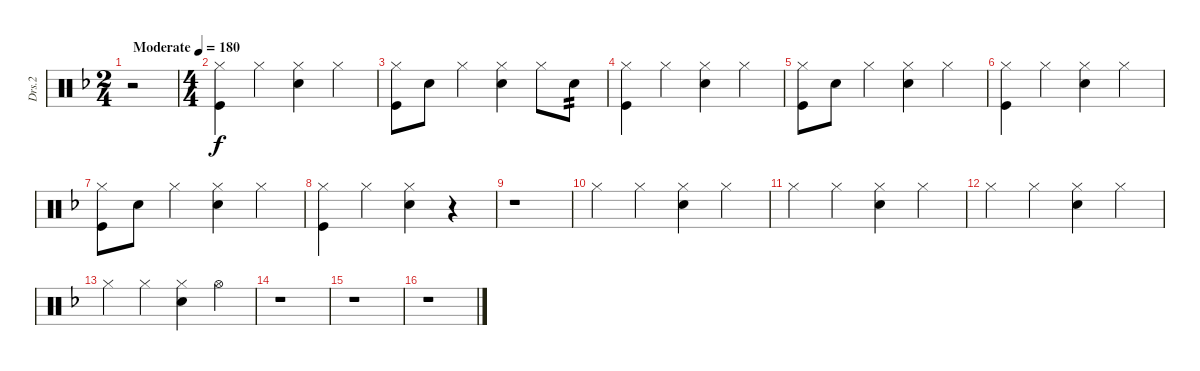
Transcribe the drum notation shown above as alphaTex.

\track ("Drs.2" "Drs.2") {instrument percussion}
\staff {score}
\articulation defaults
\ts (2 4)
\tempo (180 "Moderate")
\clef neutral
\ks f
r.2{dy f} |
\ts (4 4)
("Hi-Hat (closed)" "Kick (hit)").4 "Hi-Hat (closed)".4 ("Hi-Hat (closed)" "Snare (hit) 2").4 "Hi-Hat (closed)".4 |
("Hi-Hat (closed)" "Kick (hit)").8 "Snare (hit) 2".8 "Hi-Hat (closed)".4 ("Hi-Hat (closed)" "Snare (hit) 2").4 "Hi-Hat (closed)".8 "Snare (hit) 2".8{tp 2} |
("Hi-Hat (closed)" "Kick (hit)").4 "Hi-Hat (closed)".4 ("Hi-Hat (closed)" "Snare (hit) 2").4 "Hi-Hat (closed)".4 |
("Hi-Hat (closed)" "Kick (hit)").8 "Snare (hit) 2".8 "Hi-Hat (closed)".4 ("Hi-Hat (closed)" "Snare (hit) 2").4 "Hi-Hat (closed)".4 |
("Hi-Hat (closed)" "Kick (hit)").4 "Hi-Hat (closed)".4 ("Hi-Hat (closed)" "Snare (hit) 2").4 "Hi-Hat (closed)".4 |
("Hi-Hat (closed)" "Kick (hit)").8 "Snare (hit) 2".8 "Hi-Hat (closed)".4 ("Hi-Hat (closed)" "Snare (hit) 2").4 "Hi-Hat (closed)".4 |
("Hi-Hat (closed)" "Kick (hit)").4 "Hi-Hat (closed)".4 ("Hi-Hat (closed)" "Snare (hit) 2").4 r.4 |
r.1 |
"Hi-Hat (closed)".4 "Hi-Hat (closed)".4 ("Hi-Hat (closed)" "Snare (hit) 2").4 "Hi-Hat (closed)".4 |
"Hi-Hat (closed)".4 "Hi-Hat (closed)".4 ("Hi-Hat (closed)" "Snare (hit) 2").4 "Hi-Hat (closed)".4 |
"Hi-Hat (closed)".4 "Hi-Hat (closed)".4 ("Hi-Hat (closed)" "Snare (hit) 2").4 "Hi-Hat (closed)".4 |
"Hi-Hat (closed)".4 "Hi-Hat (closed)".4 ("Hi-Hat (closed)" "Snare (hit) 2").4 "Hi-Hat (open)".4 |
r.1 |
r.1 |
r.1
